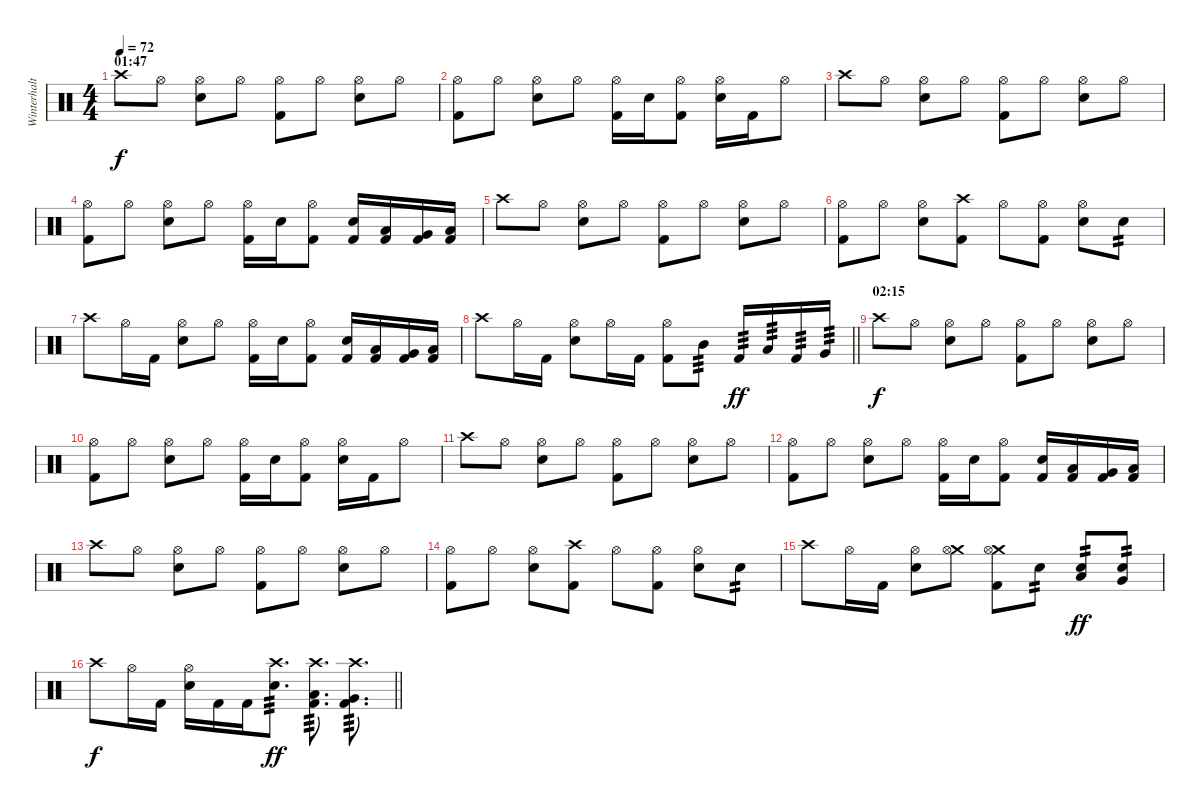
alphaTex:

\track ("Winterhalten" "Winterhalt") {instrument percussion}
\staff {score}
\articulation defaults
\ts (4 4)
\section ("" "01:47")
\tempo 72
\clef neutral
\ks c "Crash high (hit)".8{dy f} "Hi-Hat (open)".8
("Hi-Hat (open)" "Electric Snare (hit)").8 "Hi-Hat (open)".8 ("Hi-Hat (open)" "Kick (hit) 2").8 "Hi-Hat (open)".8 ("Hi-Hat (open)" "Electric Snare (hit)").8 "Hi-Hat (open)".8 |
("Hi-Hat (open)" "Kick (hit) 2").8 "Hi-Hat (open)".8 ("Hi-Hat (open)" "Electric Snare (hit)").8 "Hi-Hat (open)".8 ("Hi-Hat (open)" "Kick (hit) 2").16 "Electric Snare (hit)".16 ("Hi-Hat (open)" "Kick (hit) 2").8 ("Hi-Hat (open)" "Electric Snare (hit)").16 "Kick (hit) 2".16 "Hi-Hat (open)".8 |
"Crash high (hit)".8 "Hi-Hat (open)".8 ("Hi-Hat (open)" "Electric Snare (hit)").8 "Hi-Hat (open)".8 ("Hi-Hat (open)" "Kick (hit) 2").8 "Hi-Hat (open)".8 ("Hi-Hat (open)" "Electric Snare (hit)").8 "Hi-Hat (open)".8 |
("Hi-Hat (open)" "Kick (hit) 2").8 "Hi-Hat (open)".8 ("Hi-Hat (open)" "Electric Snare (hit)").8 "Hi-Hat (open)".8 ("Hi-Hat (open)" "Kick (hit) 2").16 "Electric Snare (hit)".16 ("Hi-Hat (open)" "Kick (hit) 2").8 ("Electric Snare (hit)" "Kick (hit) 2").16 ("Low Tom (hit)" "Kick (hit) 2").16 ("Very Low Tom (hit)" "Kick (hit) 2").16 ("Low Floor Tom (hit)" "Kick (hit) 2").16 |
"Crash high (hit)".8 "Hi-Hat (open)".8 ("Hi-Hat (open)" "Electric Snare (hit)").8 "Hi-Hat (open)".8 ("Hi-Hat (open)" "Kick (hit) 2").8 "Hi-Hat (open)".8 ("Hi-Hat (open)" "Electric Snare (hit)").8 "Hi-Hat (open)".8 |
("Hi-Hat (open)" "Kick (hit) 2").8 "Hi-Hat (open)".8 ("Hi-Hat (open)" "Electric Snare (hit)").8 ("Crash high (hit)" "Kick (hit) 2").8 "Hi-Hat (open)".8 ("Hi-Hat (open)" "Kick (hit) 2").8 ("Hi-Hat (open)" "Electric Snare (hit)").8 "Electric Snare (hit)".8{tp 2} |
"Crash high (hit)".8 "Hi-Hat (open)".16 "Kick (hit) 2".16 ("Hi-Hat (open)" "Electric Snare (hit)").8 "Hi-Hat (open)".8 ("Hi-Hat (open)" "Kick (hit) 2").16 "Electric Snare (hit)".16 ("Hi-Hat (open)" "Kick (hit) 2").8 ("Electric Snare (hit)" "Kick (hit) 2").16 ("Low Tom (hit)" "Kick (hit) 2").16 ("Very Low Tom (hit)" "Kick (hit) 2").16 ("Low Floor Tom (hit)" "Kick (hit) 2").16 |
\barLineRight lightlight "Crash high (hit)".8 "Hi-Hat (open)".16 "Kick (hit) 2".16
("Hi-Hat (open)" "Electric Snare (hit)").8 "Hi-Hat (open)".16 "Kick (hit) 2".16 ("Hi-Hat (open)" "Kick (hit) 2").8 "Mid Tom (hit)".8{tp 3} "Kick (hit) 2".16{tp 3 dy ff} "Low Tom (hit)".16{tp 3} "Kick (hit) 2".16{tp 3} "Very Low Tom (hit)".16{tp 3} |
\section ("" "02:15")
"Crash high (hit)".8{dy f} "Hi-Hat (open)".8 ("Hi-Hat (open)" "Electric Snare (hit)").8 "Hi-Hat (open)".8 ("Hi-Hat (open)" "Kick (hit) 2").8 "Hi-Hat (open)".8 ("Hi-Hat (open)" "Electric Snare (hit)").8 "Hi-Hat (open)".8 |
("Hi-Hat (open)" "Kick (hit) 2").8 "Hi-Hat (open)".8 ("Hi-Hat (open)" "Electric Snare (hit)").8 "Hi-Hat (open)".8 ("Hi-Hat (open)" "Kick (hit) 2").16 "Electric Snare (hit)".16 ("Hi-Hat (open)" "Kick (hit) 2").8 ("Hi-Hat (open)" "Electric Snare (hit)").16 "Kick (hit) 2".16 "Hi-Hat (open)".8 |
"Crash high (hit)".8 "Hi-Hat (open)".8 ("Hi-Hat (open)" "Electric Snare (hit)").8 "Hi-Hat (open)".8 ("Hi-Hat (open)" "Kick (hit) 2").8 "Hi-Hat (open)".8 ("Hi-Hat (open)" "Electric Snare (hit)").8 "Hi-Hat (open)".8 |
("Hi-Hat (open)" "Kick (hit) 2").8 "Hi-Hat (open)".8 ("Hi-Hat (open)" "Electric Snare (hit)").8 "Hi-Hat (open)".8 ("Hi-Hat (open)" "Kick (hit) 2").16 "Electric Snare (hit)".16 ("Hi-Hat (open)" "Kick (hit) 2").8 ("Electric Snare (hit)" "Kick (hit) 2").16 ("Low Tom (hit)" "Kick (hit) 2").16 ("Very Low Tom (hit)" "Kick (hit) 2").16 ("Low Floor Tom (hit)" "Kick (hit) 2").16 |
"Crash high (hit)".8 "Hi-Hat (open)".8 ("Hi-Hat (open)" "Electric Snare (hit)").8 "Hi-Hat (open)".8 ("Hi-Hat (open)" "Kick (hit) 2").8 "Hi-Hat (open)".8 ("Hi-Hat (open)" "Electric Snare (hit)").8 "Hi-Hat (open)".8 |
("Hi-Hat (open)" "Kick (hit) 2").8 "Hi-Hat (open)".8 ("Hi-Hat (open)" "Electric Snare (hit)").8 ("Crash high (hit)" "Kick (hit) 2").8 "Hi-Hat (open)".8 ("Hi-Hat (open)" "Kick (hit) 2").8 ("Hi-Hat (open)" "Electric Snare (hit)").8 "Electric Snare (hit)".8{tp 2} |
"Crash high (hit)".8 "Hi-Hat (open)".16 "Kick (hit) 2".16 ("Hi-Hat (open)" "Electric Snare (hit)").8 ("Crash medium (hit)" "Hi-Hat (open)").8 ("Crash medium (hit)" "Hi-Hat (open)" "Kick (hit) 2").8 "Electric Snare (hit)".8{tp 2} ("Electric Snare (hit)" "Low Tom (hit)").8{tp 2 dy ff} ("Electric Snare (hit)" "Very Low Tom (hit)").8{tp 2} |
\barLineRight lightlight "Crash high (hit)".8{dy f} "Hi-Hat (open)".16 "Kick (hit) 2".16
("Hi-Hat (open)" "Electric Snare (hit)").16 "Kick (hit) 2".16 "Kick (hit) 2".16 ("Crash high (hit)" "Electric Snare (hit)").8{d tp 3 dy ff} ("Crash high (hit)" "Kick (hit) 2" "Low Tom (hit)").8{d tp 3} ("Crash high (hit)" "Kick (hit) 2" "Very Low Tom (hit)").8{d tp 3}
